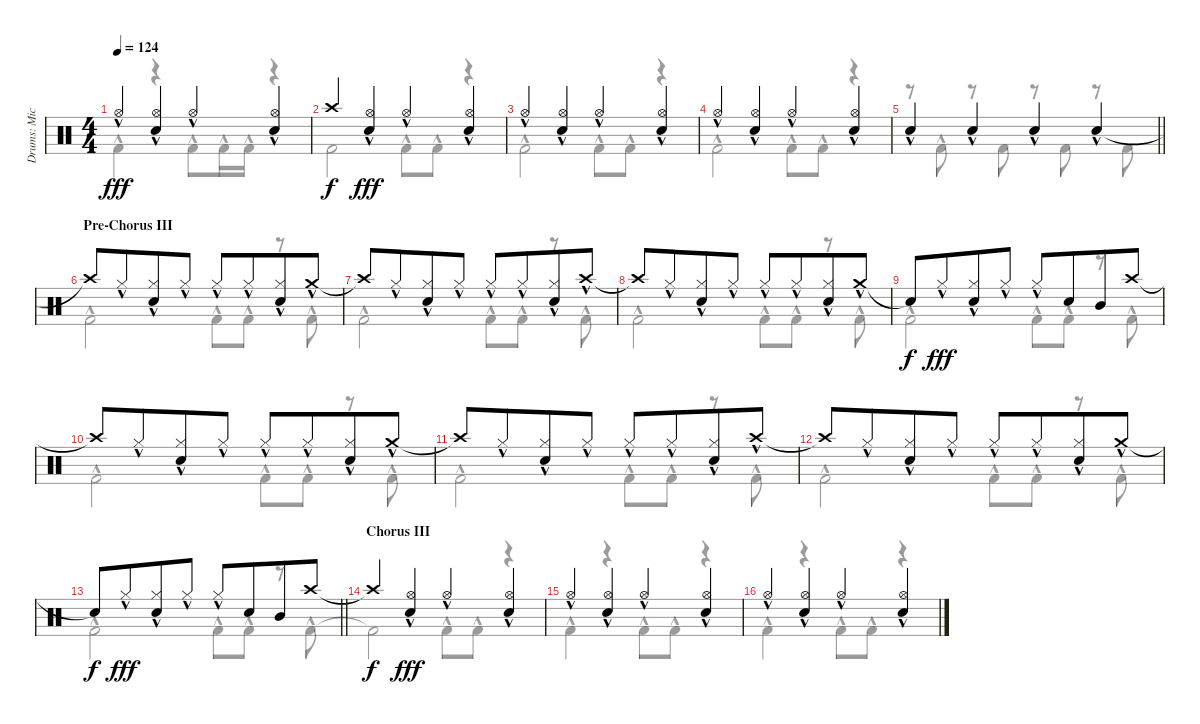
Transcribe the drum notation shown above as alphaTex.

\track ("Drums: Mick" "Drums: Mic") {instrument percussion}
\staff {score}
\articulation defaults
\voice
\ts (4 4)
\tempo 124
\clef neutral
\ks c "Hi-Hat (open)"{hac}.4{dy fff}
("Hi-Hat (open)"{hac} "Snare (hit) 2"{hac}).4 "Hi-Hat (open)"{hac}.4 ("Hi-Hat (open)"{hac} "Snare (hit) 2"{hac}).4 |
"Crash high (hit)".4{dy f} ("Hi-Hat (open)"{hac} "Snare (hit) 2"{hac}).4{dy fff} "Hi-Hat (open)"{hac}.4 ("Hi-Hat (open)"{hac} "Snare (hit) 2"{hac}).4 |
"Hi-Hat (open)"{hac}.4 ("Hi-Hat (open)"{hac} "Snare (hit) 2"{hac}).4 "Hi-Hat (open)"{hac}.4 ("Hi-Hat (open)"{hac} "Snare (hit) 2"{hac}).4 |
"Hi-Hat (open)"{hac}.4 ("Hi-Hat (open)"{hac} "Snare (hit) 2"{hac}).4 "Hi-Hat (open)"{hac}.4 ("Hi-Hat (open)"{hac} "Snare (hit) 2"{hac}).4 |
\barLineRight lightlight "Snare (hit) 2"{hac}.4 "Snare (hit) 2"{hac}.4 "Snare (hit) 2"{hac}.4 "Snare (hit) 2"{hac}.4
|
\section ("" "Pre-Chorus III")
"Crash high (hit)"{t}.8 "Hi-Hat (closed)"{hac}.8{beam merge} ("Hi-Hat (closed)"{hac} "Snare (hit) 2"{hac}).8 "Hi-Hat (closed)"{hac}.8 "Hi-Hat (closed)"{hac}.8 "Hi-Hat (closed)"{hac}.8{beam merge} ("Hi-Hat (closed)"{hac} "Snare (hit) 2"{hac}).8 "Crash medium (hit)"{hac}.8 |
"Crash high (hit)"{t}.8 "Hi-Hat (closed)"{hac}.8{beam merge} ("Hi-Hat (closed)"{hac} "Snare (hit) 2"{hac}).8 "Hi-Hat (closed)"{hac}.8 "Hi-Hat (closed)"{hac}.8 "Hi-Hat (closed)"{hac}.8{beam merge} ("Hi-Hat (closed)"{hac} "Snare (hit) 2"{hac}).8 "Crash high (hit)"{hac}.8 |
"Crash high (hit)"{t}.8 "Hi-Hat (closed)"{hac}.8{beam merge} ("Hi-Hat (closed)"{hac} "Snare (hit) 2"{hac}).8 "Hi-Hat (closed)"{hac}.8 "Hi-Hat (closed)"{hac}.8 "Hi-Hat (closed)"{hac}.8{beam merge} ("Hi-Hat (closed)"{hac} "Snare (hit) 2"{hac}).8 "Crash medium (hit)"{hac}.8 |
"Snare (hit)"{t}.8{dy f} "Hi-Hat (closed)"{hac}.8{dy fff beam merge} ("Hi-Hat (closed)"{hac} "Snare (hit) 2"{hac}).8 "Hi-Hat (closed)"{hac}.8 "Hi-Hat (closed)"{hac}.8 "Snare (hit) 2".8{beam merge} "Mid Tom (hit)".8 "Crash high (hit)".8 |
"Crash high (hit)"{t}.8 "Hi-Hat (closed)"{hac}.8{beam merge} ("Hi-Hat (closed)"{hac} "Snare (hit) 2"{hac}).8 "Hi-Hat (closed)"{hac}.8 "Hi-Hat (closed)"{hac}.8 "Hi-Hat (closed)"{hac}.8{beam merge} ("Hi-Hat (closed)"{hac} "Snare (hit) 2"{hac}).8 "Crash medium (hit)"{hac}.8 |
"Crash high (hit)"{t}.8 "Hi-Hat (closed)"{hac}.8{beam merge} ("Hi-Hat (closed)"{hac} "Snare (hit) 2"{hac}).8 "Hi-Hat (closed)"{hac}.8 "Hi-Hat (closed)"{hac}.8 "Hi-Hat (closed)"{hac}.8{beam merge} ("Hi-Hat (closed)"{hac} "Snare (hit) 2"{hac}).8 "Crash high (hit)"{hac}.8 |
"Crash high (hit)"{t}.8 "Hi-Hat (closed)"{hac}.8{beam merge} ("Hi-Hat (closed)"{hac} "Snare (hit) 2"{hac}).8 "Hi-Hat (closed)"{hac}.8 "Hi-Hat (closed)"{hac}.8 "Hi-Hat (closed)"{hac}.8{beam merge} ("Hi-Hat (closed)"{hac} "Snare (hit) 2"{hac}).8 "Crash medium (hit)"{hac}.8 |
\barLineRight lightlight "Snare (hit)"{t}.8{dy f} "Hi-Hat (closed)"{hac}.8{dy fff beam merge}
("Hi-Hat (closed)"{hac} "Snare (hit) 2"{hac}).8 "Hi-Hat (closed)"{hac}.8 "Hi-Hat (closed)"{hac}.8 "Snare (hit) 2".8{beam merge} "Mid Tom (hit)".8 "Crash high (hit)".8 |
\section ("" "Chorus III")
"Crash high (hit)"{t}.4{dy f} ("Hi-Hat (open)"{hac} "Snare (hit) 2"{hac}).4{dy fff} "Hi-Hat (open)"{hac}.4 ("Hi-Hat (open)"{hac} "Snare (hit) 2"{hac}).4 |
"Hi-Hat (open)"{hac}.4 ("Hi-Hat (open)"{hac} "Snare (hit) 2"{hac}).4 "Hi-Hat (open)"{hac}.4 ("Hi-Hat (open)"{hac} "Snare (hit) 2"{hac}).4 |
"Hi-Hat (open)"{hac}.4 ("Hi-Hat (open)"{hac} "Snare (hit) 2"{hac}).4 "Hi-Hat (open)"{hac}.4 ("Hi-Hat (open)"{hac} "Snare (hit) 2"{hac}).4
\voice
\clef neutral
\ottava regular
\simile none
\ks c "Kick (hit) 2"{hac}.4{dy fff}
r.4 "Kick (hit) 2"{hac}.8 "Kick (hit) 2"{hac}.16 "Kick (hit) 2"{hac}.16 r.4 |
"Kick (hit) 2".2 "Kick (hit) 2"{hac}.8 "Kick (hit) 2"{hac}.8 r.4 |
"Kick (hit) 2"{hac}.2 "Kick (hit) 2"{hac}.8 "Kick (hit) 2"{hac}.8 r.4 |
"Kick (hit) 2"{hac}.2 "Kick (hit) 2"{hac}.8 "Kick (hit) 2"{hac}.8 r.4 |
\barLineRight lightlight
r.8 "Kick (hit) 2"{hac}.8 r.8 "Kick (hit) 2".8 r.8 "Kick (hit) 2".8 r.8 "Kick (hit) 2".8 |
"Kick (hit) 2"{hac}.2 "Kick (hit) 2"{hac}.8 "Kick (hit) 2"{hac}.8 r.8 "Kick (hit) 2"{hac}.8 |
"Kick (hit) 2"{hac}.2 "Kick (hit) 2"{hac}.8 "Kick (hit) 2"{hac}.8 r.8 "Kick (hit) 2"{hac}.8 |
"Kick (hit) 2"{hac}.2 "Kick (hit) 2"{hac}.8 "Kick (hit) 2"{hac}.8 r.8 "Kick (hit) 2"{hac}.8 |
"Kick (hit) 2"{hac}.2 "Kick (hit) 2"{hac}.8 "Kick (hit) 2"{hac}.8 r.8 "Kick (hit) 2"{hac}.8 |
"Kick (hit) 2"{hac}.2 "Kick (hit) 2"{hac}.8 "Kick (hit) 2"{hac}.8 r.8 "Kick (hit) 2"{hac}.8 |
"Kick (hit) 2"{hac}.2 "Kick (hit) 2"{hac}.8 "Kick (hit) 2"{hac}.8 r.8 "Kick (hit) 2"{hac}.8 |
"Kick (hit) 2"{hac}.2 "Kick (hit) 2"{hac}.8 "Kick (hit) 2"{hac}.8 r.8 "Kick (hit) 2"{hac}.8 |
\barLineRight lightlight "Kick (hit) 2"{hac}.2 "Kick (hit) 2"{hac}.8 "Kick (hit) 2"{hac}.8
r.8 "Kick (hit) 2"{hac}.8 |
"Kick (hit) 2"{t}.2 "Kick (hit) 2"{hac}.8 "Kick (hit) 2"{hac}.8 r.4 |
"Kick (hit) 2"{hac}.4 r.4 "Kick (hit) 2"{hac}.8 "Kick (hit) 2"{hac}.8 r.4 |
"Kick (hit) 2"{hac}.4 r.4 "Kick (hit) 2"{hac}.8 "Kick (hit) 2"{hac}.8 r.4
